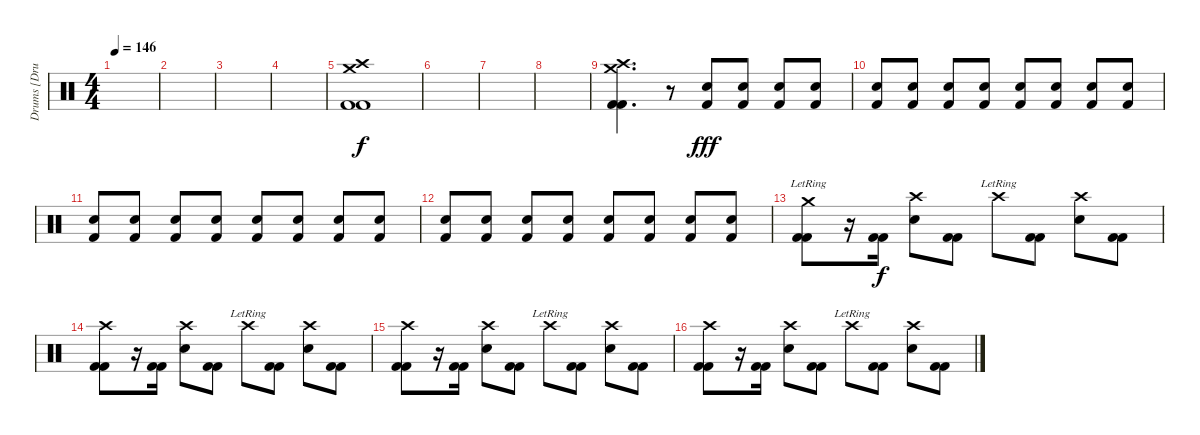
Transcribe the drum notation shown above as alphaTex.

\track ("Drums [Drums]" "Drums [Dru") {instrument percussion}
\staff {score}
\articulation defaults
\ts (4 4)
\tempo 146
\clef neutral
\ks c
|
|
|
|
("Crash high (hit)" "Crash medium (hit)" "Kick (hit) 2" "Kick (hit) 2").1 |
|
|
|
("Crash medium (hit)" "Crash high (hit)" "Kick (hit) 2" "Kick (hit) 2").4{d dy f} r.8{volume 0} ("Snare (hit) 2" "Kick (hit) 2").8{dy fff volume 13} ("Snare (hit) 2" "Kick (hit) 2").8 ("Snare (hit) 2" "Kick (hit) 2").8 ("Snare (hit) 2" "Kick (hit) 2").8 |
("Snare (hit) 2" "Kick (hit) 2").8 ("Snare (hit) 2" "Kick (hit) 2").8 ("Snare (hit) 2" "Kick (hit) 2").8 ("Snare (hit) 2" "Kick (hit) 2").8 ("Snare (hit) 2" "Kick (hit) 2").8 ("Snare (hit) 2" "Kick (hit) 2").8 ("Snare (hit) 2" "Kick (hit) 2").8 ("Snare (hit) 2" "Kick (hit) 2").8 |
("Snare (hit) 2" "Kick (hit) 2").8 ("Snare (hit) 2" "Kick (hit) 2").8 ("Snare (hit) 2" "Kick (hit) 2").8 ("Snare (hit) 2" "Kick (hit) 2").8 ("Snare (hit) 2" "Kick (hit) 2").8 ("Snare (hit) 2" "Kick (hit) 2").8 ("Snare (hit) 2" "Kick (hit) 2").8 ("Snare (hit) 2" "Kick (hit) 2").8 |
("Snare (hit) 2" "Kick (hit) 2").8 ("Snare (hit) 2" "Kick (hit) 2").8 ("Snare (hit) 2" "Kick (hit) 2").8 ("Snare (hit) 2" "Kick (hit) 2").8 ("Snare (hit) 2" "Kick (hit) 2").8 ("Snare (hit) 2" "Kick (hit) 2").8 ("Snare (hit) 2" "Kick (hit) 2").8 ("Snare (hit) 2" "Kick (hit) 2").8 |
("Crash medium (hit)"{lr} "Kick (hit) 2" "Kick (hit) 2").8 r.16 ("Kick (hit) 2" "Kick (hit) 2").16{dy f} ("Crash high (hit)" "Snare (hit) 2").8 ("Kick (hit) 2" "Kick (hit) 2").8 "Crash high (hit)"{lr}.8 ("Kick (hit) 2" "Kick (hit) 2").8 ("Crash high (hit)" "Snare (hit) 2").8 ("Kick (hit) 2" "Kick (hit) 2").8 |
("Crash high (hit)" "Kick (hit) 2" "Kick (hit) 2").8 r.16 ("Kick (hit) 2" "Kick (hit) 2").16 ("Crash high (hit)" "Snare (hit) 2").8 ("Kick (hit) 2" "Kick (hit) 2").8 "Crash high (hit)"{lr}.8 ("Kick (hit) 2" "Kick (hit) 2").8 ("Crash high (hit)" "Snare (hit) 2").8 ("Kick (hit) 2" "Kick (hit) 2").8 |
("Crash high (hit)" "Kick (hit) 2" "Kick (hit) 2").8 r.16 ("Kick (hit) 2" "Kick (hit) 2").16 ("Crash high (hit)" "Snare (hit) 2").8 ("Kick (hit) 2" "Kick (hit) 2").8 "Crash high (hit)"{lr}.8 ("Kick (hit) 2" "Kick (hit) 2").8 ("Crash high (hit)" "Snare (hit) 2").8 ("Kick (hit) 2" "Kick (hit) 2").8 |
("Crash high (hit)" "Kick (hit) 2" "Kick (hit) 2").8 r.16 ("Kick (hit) 2" "Kick (hit) 2").16 ("Crash high (hit)" "Snare (hit) 2").8 ("Kick (hit) 2" "Kick (hit) 2").8 "Crash high (hit)"{lr}.8 ("Kick (hit) 2" "Kick (hit) 2").8 ("Crash high (hit)" "Snare (hit) 2").8 ("Kick (hit) 2" "Kick (hit) 2").8
